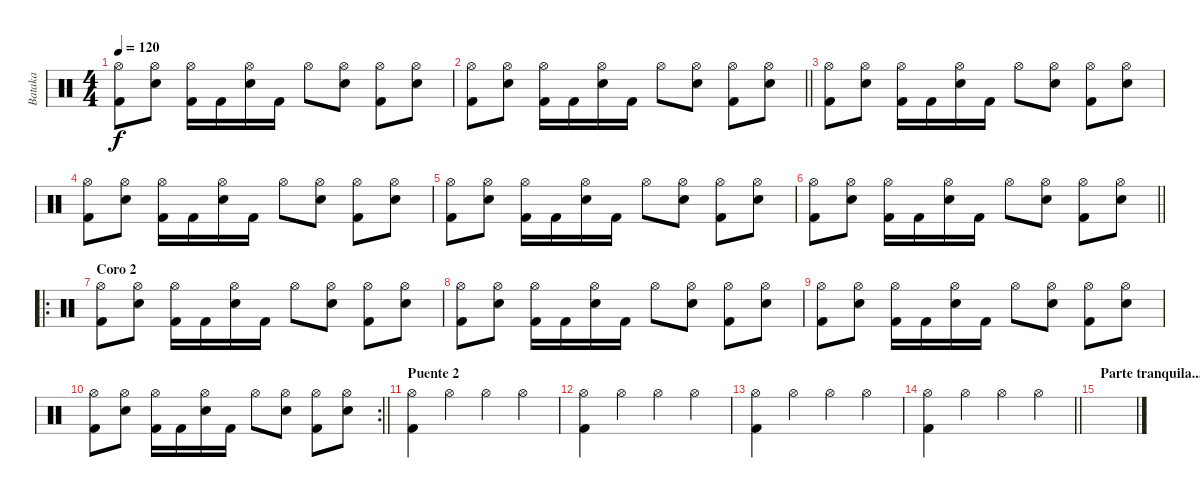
\track ("Bataka" "Bataka") {instrument percussion}
\staff {score}
\articulation defaults
\ts (4 4)
\tempo 120
\clef neutral
\ks c
("Hi-Hat (open)" "Kick (hit) 2").8{dy f} ("Hi-Hat (open)" "Electric Snare (hit)").8 ("Hi-Hat (open)" "Kick (hit) 2").16 "Kick (hit) 2".16 ("Hi-Hat (open)" "Electric Snare (hit)").16 "Kick (hit) 2".16 "Hi-Hat (open)".8 ("Hi-Hat (open)" "Electric Snare (hit)").8 ("Hi-Hat (open)" "Kick (hit) 2").8 ("Hi-Hat (open)" "Electric Snare (hit)").8 |
\barLineRight lightlight
("Hi-Hat (open)" "Kick (hit) 2").8 ("Hi-Hat (open)" "Electric Snare (hit)").8 ("Hi-Hat (open)" "Kick (hit) 2").16 "Kick (hit) 2".16 ("Hi-Hat (open)" "Electric Snare (hit)").16 "Kick (hit) 2".16 "Hi-Hat (open)".8 ("Hi-Hat (open)" "Electric Snare (hit)").8 ("Hi-Hat (open)" "Kick (hit) 2").8 ("Hi-Hat (open)" "Electric Snare (hit)").8 |
("Hi-Hat (open)" "Kick (hit) 2").8 ("Hi-Hat (open)" "Electric Snare (hit)").8 ("Hi-Hat (open)" "Kick (hit) 2").16 "Kick (hit) 2".16 ("Hi-Hat (open)" "Electric Snare (hit)").16 "Kick (hit) 2".16 "Hi-Hat (open)".8 ("Hi-Hat (open)" "Electric Snare (hit)").8 ("Hi-Hat (open)" "Kick (hit) 2").8 ("Hi-Hat (open)" "Electric Snare (hit)").8 |
("Hi-Hat (open)" "Kick (hit) 2").8 ("Hi-Hat (open)" "Electric Snare (hit)").8 ("Hi-Hat (open)" "Kick (hit) 2").16 "Kick (hit) 2".16 ("Hi-Hat (open)" "Electric Snare (hit)").16 "Kick (hit) 2".16 "Hi-Hat (open)".8 ("Hi-Hat (open)" "Electric Snare (hit)").8 ("Hi-Hat (open)" "Kick (hit) 2").8 ("Hi-Hat (open)" "Electric Snare (hit)").8 |
("Hi-Hat (open)" "Kick (hit) 2").8 ("Hi-Hat (open)" "Electric Snare (hit)").8 ("Hi-Hat (open)" "Kick (hit) 2").16 "Kick (hit) 2".16 ("Hi-Hat (open)" "Electric Snare (hit)").16 "Kick (hit) 2".16 "Hi-Hat (open)".8 ("Hi-Hat (open)" "Electric Snare (hit)").8 ("Hi-Hat (open)" "Kick (hit) 2").8 ("Hi-Hat (open)" "Electric Snare (hit)").8 |
\barLineRight lightlight
("Hi-Hat (open)" "Kick (hit) 2").8 ("Hi-Hat (open)" "Electric Snare (hit)").8 ("Hi-Hat (open)" "Kick (hit) 2").16 "Kick (hit) 2".16 ("Hi-Hat (open)" "Electric Snare (hit)").16 "Kick (hit) 2".16 "Hi-Hat (open)".8 ("Hi-Hat (open)" "Electric Snare (hit)").8 ("Hi-Hat (open)" "Kick (hit) 2").8 ("Hi-Hat (open)" "Electric Snare (hit)").8 |
\ro
\section ("" "Coro 2")
("Hi-Hat (open)" "Kick (hit) 2").8 ("Hi-Hat (open)" "Electric Snare (hit)").8 ("Hi-Hat (open)" "Kick (hit) 2").16 "Kick (hit) 2".16 ("Hi-Hat (open)" "Electric Snare (hit)").16 "Kick (hit) 2".16 "Hi-Hat (open)".8 ("Hi-Hat (open)" "Electric Snare (hit)").8 ("Hi-Hat (open)" "Kick (hit) 2").8 ("Hi-Hat (open)" "Electric Snare (hit)").8 |
("Hi-Hat (open)" "Kick (hit) 2").8 ("Hi-Hat (open)" "Electric Snare (hit)").8 ("Hi-Hat (open)" "Kick (hit) 2").16 "Kick (hit) 2".16 ("Hi-Hat (open)" "Electric Snare (hit)").16 "Kick (hit) 2".16 "Hi-Hat (open)".8 ("Hi-Hat (open)" "Electric Snare (hit)").8 ("Hi-Hat (open)" "Kick (hit) 2").8 ("Hi-Hat (open)" "Electric Snare (hit)").8 |
("Hi-Hat (open)" "Kick (hit) 2").8 ("Hi-Hat (open)" "Electric Snare (hit)").8 ("Hi-Hat (open)" "Kick (hit) 2").16 "Kick (hit) 2".16 ("Hi-Hat (open)" "Electric Snare (hit)").16 "Kick (hit) 2".16 "Hi-Hat (open)".8 ("Hi-Hat (open)" "Electric Snare (hit)").8 ("Hi-Hat (open)" "Kick (hit) 2").8 ("Hi-Hat (open)" "Electric Snare (hit)").8 |
\rc 2
\barLineRight lightlight
("Hi-Hat (open)" "Kick (hit) 2").8 ("Hi-Hat (open)" "Electric Snare (hit)").8 ("Hi-Hat (open)" "Kick (hit) 2").16 "Kick (hit) 2".16 ("Hi-Hat (open)" "Electric Snare (hit)").16 "Kick (hit) 2".16 "Hi-Hat (open)".8 ("Hi-Hat (open)" "Electric Snare (hit)").8 ("Hi-Hat (open)" "Kick (hit) 2").8 ("Hi-Hat (open)" "Electric Snare (hit)").8 |
\section ("" "Puente 2")
("Hi-Hat (open)" "Kick (hit) 2").4 "Hi-Hat (open)".4 "Hi-Hat (open)".4 "Hi-Hat (open)".4 |
("Hi-Hat (open)" "Kick (hit) 2").4 "Hi-Hat (open)".4 "Hi-Hat (open)".4 "Hi-Hat (open)".4 |
("Hi-Hat (open)" "Kick (hit) 2").4 "Hi-Hat (open)".4 "Hi-Hat (open)".4 "Hi-Hat (open)".4 |
\barLineRight lightlight
("Hi-Hat (open)" "Kick (hit) 2").4 "Hi-Hat (open)".4 "Hi-Hat (open)".4 "Hi-Hat (open)".4 |
\section ("" "Parte tranquila...")
